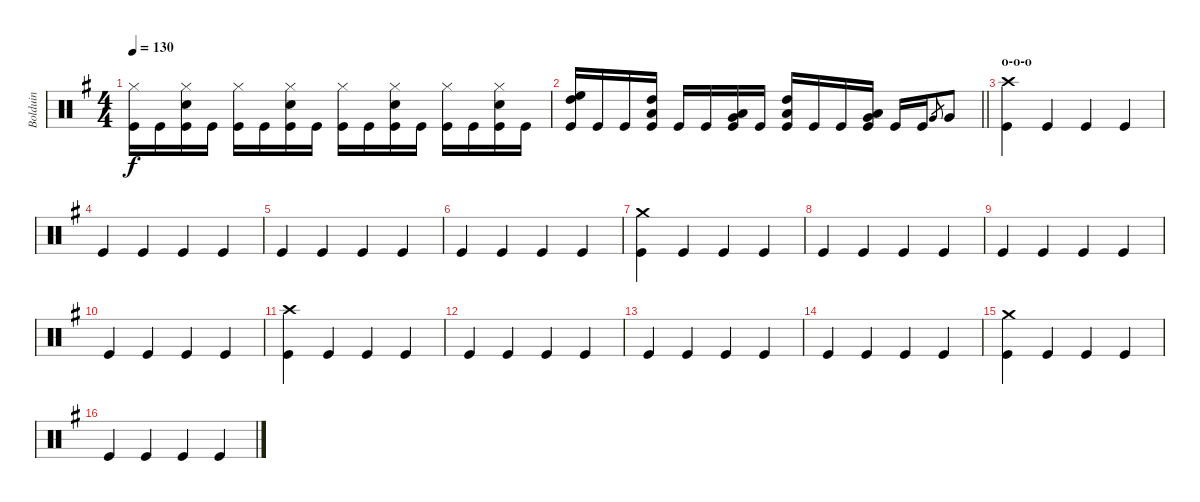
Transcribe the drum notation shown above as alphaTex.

\track ("Bolduin" "Bolduin") {instrument percussion}
\staff {score}
\articulation defaults
\ts (4 4)
\tempo 130
\clef neutral
\ks eminor
("Hi-Hat (closed)" "Kick (hit)").16{dy f} "Kick (hit)".16 ("Hi-Hat (closed)" "Kick (hit)" "Snare (hit) 2").16 "Kick (hit)".16 ("Hi-Hat (closed)" "Kick (hit)").16 "Kick (hit)".16 ("Hi-Hat (closed)" "Kick (hit)" "Snare (hit) 2").16 "Kick (hit)".16 ("Hi-Hat (closed)" "Kick (hit)").16 "Kick (hit)".16 ("Hi-Hat (closed)" "Kick (hit)" "Snare (hit) 2").16 "Kick (hit)".16 ("Hi-Hat (closed)" "Kick (hit)").16 "Kick (hit)".16 ("Hi-Hat (closed)" "Kick (hit)" "Snare (hit) 2").16 "Kick (hit)".16 |
\barLineRight lightlight
("Kick (hit)" "High Floor Tom (hit)" "High Tom (hit)").16 "Kick (hit)".16 "Kick (hit)".16 ("Kick (hit)" "High Tom (hit)" "Low Tom (hit)").16 "Kick (hit)".16 "Kick (hit)".16 ("Kick (hit)" "Low Tom (hit)" "Very Low Tom (hit)").16 "Kick (hit)".16 ("High Tom (hit)" "Kick (hit)" "Low Tom (hit)").16 "Kick (hit)".16 "Kick (hit)".16 ("Low Tom (hit)" "Kick (hit)" "Very Low Tom (hit)").16 "Kick (hit)".16 "Kick (hit)".16 "Very Low Tom (hit)".8{gr} "Very Low Tom (hit)".8 |
\section ("" "o-o-o")
("Kick (hit)" "Crash high (hit)").4 "Kick (hit)".4 "Kick (hit)".4 "Kick (hit)".4 |
"Kick (hit)".4 "Kick (hit)".4 "Kick (hit)".4 "Kick (hit)".4 |
"Kick (hit)".4 "Kick (hit)".4 "Kick (hit)".4 "Kick (hit)".4 |
"Kick (hit)".4 "Kick (hit)".4 "Kick (hit)".4 "Kick (hit)".4 |
("Kick (hit)" "Crash medium (hit)").4 "Kick (hit)".4 "Kick (hit)".4 "Kick (hit)".4 |
"Kick (hit)".4 "Kick (hit)".4 "Kick (hit)".4 "Kick (hit)".4 |
"Kick (hit)".4 "Kick (hit)".4 "Kick (hit)".4 "Kick (hit)".4 |
"Kick (hit)".4 "Kick (hit)".4 "Kick (hit)".4 "Kick (hit)".4 |
("Kick (hit)" "Crash high (hit)").4 "Kick (hit)".4 "Kick (hit)".4 "Kick (hit)".4 |
"Kick (hit)".4 "Kick (hit)".4 "Kick (hit)".4 "Kick (hit)".4 |
"Kick (hit)".4 "Kick (hit)".4 "Kick (hit)".4 "Kick (hit)".4 |
"Kick (hit)".4 "Kick (hit)".4 "Kick (hit)".4 "Kick (hit)".4 |
("Kick (hit)" "Crash medium (hit)").4 "Kick (hit)".4 "Kick (hit)".4 "Kick (hit)".4 |
"Kick (hit)".4 "Kick (hit)".4 "Kick (hit)".4 "Kick (hit)".4
